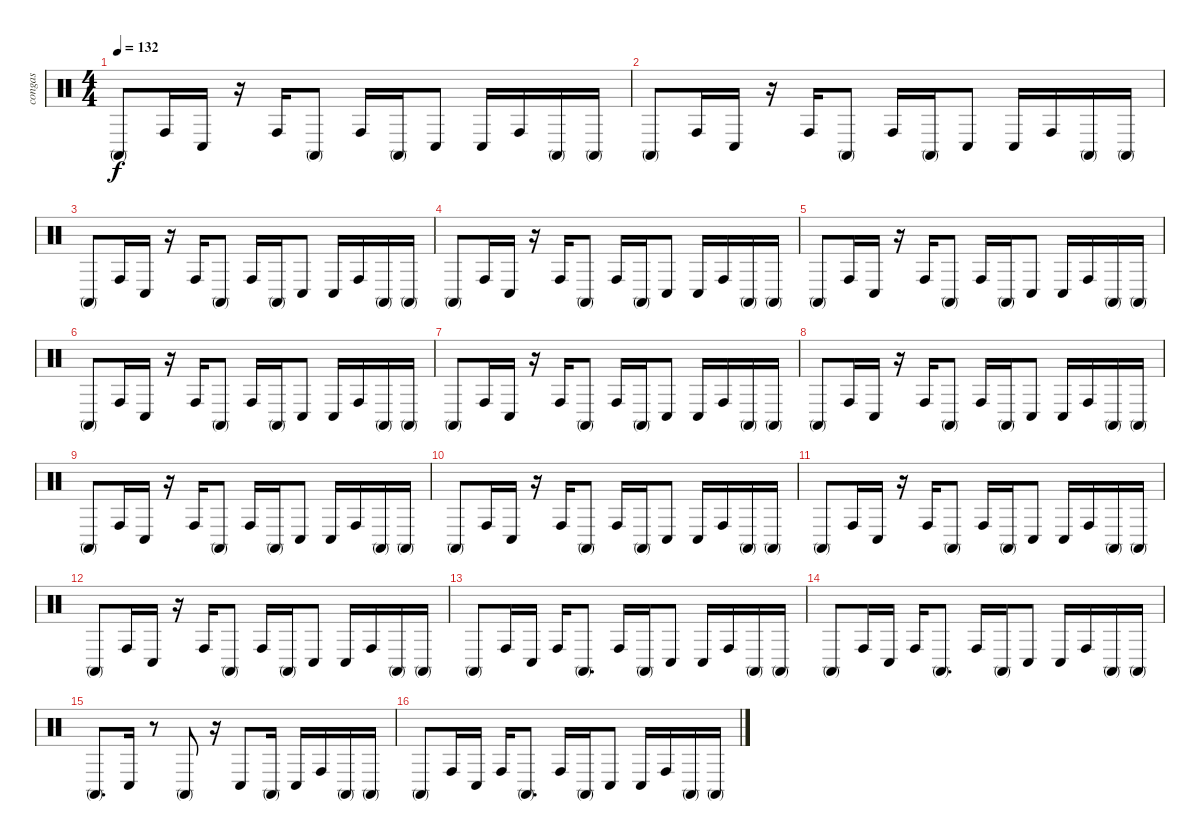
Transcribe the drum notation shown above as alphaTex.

\track ("congas" "congas") {instrument percussion}
\staff {score}
\articulation defaults
\ts (4 4)
\tempo 132
\clef neutral
\ks c "Conga high (mute)".8{dy f} "Conga high (hit)".16 "Conga low (hit)".16
r.16 "Conga high (hit)".16 "Conga high (mute)".8 "Conga high (hit)".16 "Conga high (mute)".16 "Conga low (hit)".8 "Conga low (hit)".16 "Conga high (hit)".16 "Conga high (mute)".16 "Conga high (mute)".16 |
"Conga high (mute)".8 "Conga high (hit)".16 "Conga low (hit)".16 r.16 "Conga high (hit)".16 "Conga high (mute)".8 "Conga high (hit)".16 "Conga high (mute)".16 "Conga low (hit)".8 "Conga low (hit)".16 "Conga high (hit)".16 "Conga high (mute)".16 "Conga high (mute)".16 |
"Conga high (mute)".8 "Conga high (hit)".16 "Conga low (hit)".16 r.16 "Conga high (hit)".16 "Conga high (mute)".8 "Conga high (hit)".16 "Conga high (mute)".16 "Conga low (hit)".8 "Conga low (hit)".16 "Conga high (hit)".16 "Conga high (mute)".16 "Conga high (mute)".16 |
"Conga high (mute)".8 "Conga high (hit)".16 "Conga low (hit)".16 r.16 "Conga high (hit)".16 "Conga high (mute)".8 "Conga high (hit)".16 "Conga high (mute)".16 "Conga low (hit)".8 "Conga low (hit)".16 "Conga high (hit)".16 "Conga high (mute)".16 "Conga high (mute)".16 |
"Conga high (mute)".8 "Conga high (hit)".16 "Conga low (hit)".16 r.16 "Conga high (hit)".16 "Conga high (mute)".8 "Conga high (hit)".16 "Conga high (mute)".16 "Conga low (hit)".8 "Conga low (hit)".16 "Conga high (hit)".16 "Conga high (mute)".16 "Conga high (mute)".16 |
"Conga high (mute)".8 "Conga high (hit)".16 "Conga low (hit)".16 r.16 "Conga high (hit)".16 "Conga high (mute)".8 "Conga high (hit)".16 "Conga high (mute)".16 "Conga low (hit)".8 "Conga low (hit)".16 "Conga high (hit)".16 "Conga high (mute)".16 "Conga high (mute)".16 |
"Conga high (mute)".8 "Conga high (hit)".16 "Conga low (hit)".16 r.16 "Conga high (hit)".16 "Conga high (mute)".8 "Conga high (hit)".16 "Conga high (mute)".16 "Conga low (hit)".8 "Conga low (hit)".16 "Conga high (hit)".16 "Conga high (mute)".16 "Conga high (mute)".16 |
"Conga high (mute)".8 "Conga high (hit)".16 "Conga low (hit)".16 r.16 "Conga high (hit)".16 "Conga high (mute)".8 "Conga high (hit)".16 "Conga high (mute)".16 "Conga low (hit)".8 "Conga low (hit)".16 "Conga high (hit)".16 "Conga high (mute)".16 "Conga high (mute)".16 |
"Conga high (mute)".8 "Conga high (hit)".16 "Conga low (hit)".16 r.16 "Conga high (hit)".16 "Conga high (mute)".8 "Conga high (hit)".16 "Conga high (mute)".16 "Conga low (hit)".8 "Conga low (hit)".16 "Conga high (hit)".16 "Conga high (mute)".16 "Conga high (mute)".16 |
"Conga high (mute)".8 "Conga high (hit)".16 "Conga low (hit)".16 r.16 "Conga high (hit)".16 "Conga high (mute)".8 "Conga high (hit)".16 "Conga high (mute)".16 "Conga low (hit)".8 "Conga low (hit)".16 "Conga high (hit)".16 "Conga high (mute)".16 "Conga high (mute)".16 |
"Conga high (mute)".8 "Conga high (hit)".16 "Conga low (hit)".16 r.16 "Conga high (hit)".16 "Conga high (mute)".8 "Conga high (hit)".16 "Conga high (mute)".16 "Conga low (hit)".8 "Conga low (hit)".16 "Conga high (hit)".16 "Conga high (mute)".16 "Conga high (mute)".16 |
"Conga high (mute)".8 "Conga high (hit)".16 "Conga low (hit)".16 r.16 "Conga high (hit)".16 "Conga high (mute)".8 "Conga high (hit)".16 "Conga high (mute)".16 "Conga low (hit)".8 "Conga low (hit)".16 "Conga high (hit)".16 "Conga high (mute)".16 "Conga high (mute)".16 |
"Conga high (mute)".8 "Conga high (hit)".16 "Conga low (hit)".16 "Conga high (hit)".16 "Conga high (mute)".8{d} "Conga high (hit)".16 "Conga high (mute)".16 "Conga low (hit)".8 "Conga low (hit)".16 "Conga high (hit)".16 "Conga high (mute)".16 "Conga high (mute)".16 |
"Conga high (mute)".8 "Conga high (hit)".16 "Conga low (hit)".16 "Conga high (hit)".16 "Conga high (mute)".8{d} "Conga high (hit)".16 "Conga high (mute)".16 "Conga low (hit)".8 "Conga low (hit)".16 "Conga high (hit)".16 "Conga high (mute)".16 "Conga high (mute)".16 |
"Conga high (mute)".8{d} "Conga low (hit)".16 r.8 "Conga high (mute)".8 r.16 "Conga low (hit)".8 "Conga high (mute)".16 "Conga low (hit)".16 "Conga high (hit)".16 "Conga high (mute)".16 "Conga high (mute)".16 |
"Conga high (mute)".8 "Conga high (hit)".16 "Conga low (hit)".16 "Conga high (hit)".16 "Conga high (mute)".8{d} "Conga high (hit)".16 "Conga high (mute)".16 "Conga low (hit)".8 "Conga low (hit)".16 "Conga high (hit)".16 "Conga high (mute)".16 "Conga high (mute)".16
